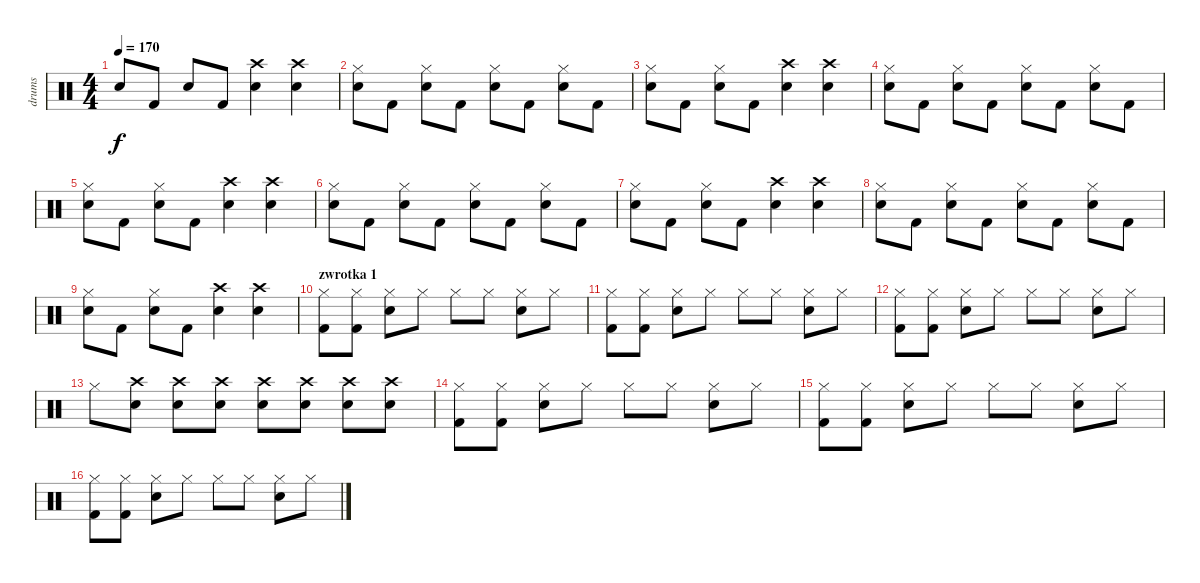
\track ("drums" "drums") {instrument percussion}
\staff {score}
\articulation defaults
\ts (4 4)
\tempo 170
\clef neutral
\ks c "Snare (hit) 2".8{dy f} "Kick (hit) 2".8 "Snare (hit) 2".8 "Kick (hit) 2".8
("Crash high (hit)" "Snare (hit) 2").4 ("Crash high (hit)" "Snare (hit) 2").4 |
("Hi-Hat (closed)" "Snare (hit) 2").8 "Kick (hit) 2".8 ("Hi-Hat (closed)" "Snare (hit) 2").8 "Kick (hit) 2".8 ("Hi-Hat (closed)" "Snare (hit) 2").8 "Kick (hit) 2".8 ("Hi-Hat (closed)" "Snare (hit) 2").8 "Kick (hit) 2".8 |
("Hi-Hat (closed)" "Snare (hit) 2").8 "Kick (hit) 2".8 ("Hi-Hat (closed)" "Snare (hit) 2").8 "Kick (hit) 2".8 ("Crash high (hit)" "Snare (hit) 2").4 ("Crash high (hit)" "Snare (hit) 2").4 |
("Hi-Hat (closed)" "Snare (hit) 2").8 "Kick (hit) 2".8 ("Hi-Hat (closed)" "Snare (hit) 2").8 "Kick (hit) 2".8 ("Hi-Hat (closed)" "Snare (hit) 2").8 "Kick (hit) 2".8 ("Hi-Hat (closed)" "Snare (hit) 2").8 "Kick (hit) 2".8 |
("Hi-Hat (closed)" "Snare (hit) 2").8 "Kick (hit) 2".8 ("Hi-Hat (closed)" "Snare (hit) 2").8 "Kick (hit) 2".8 ("Crash high (hit)" "Snare (hit) 2").4 ("Crash high (hit)" "Snare (hit) 2").4 |
("Hi-Hat (closed)" "Snare (hit) 2").8 "Kick (hit) 2".8 ("Hi-Hat (closed)" "Snare (hit) 2").8 "Kick (hit) 2".8 ("Hi-Hat (closed)" "Snare (hit) 2").8 "Kick (hit) 2".8 ("Hi-Hat (closed)" "Snare (hit) 2").8 "Kick (hit) 2".8 |
("Hi-Hat (closed)" "Snare (hit) 2").8 "Kick (hit) 2".8 ("Hi-Hat (closed)" "Snare (hit) 2").8 "Kick (hit) 2".8 ("Crash high (hit)" "Snare (hit) 2").4 ("Crash high (hit)" "Snare (hit) 2").4 |
("Hi-Hat (closed)" "Snare (hit) 2").8 "Kick (hit) 2".8 ("Hi-Hat (closed)" "Snare (hit) 2").8 "Kick (hit) 2".8 ("Hi-Hat (closed)" "Snare (hit) 2").8 "Kick (hit) 2".8 ("Hi-Hat (closed)" "Snare (hit) 2").8 "Kick (hit) 2".8 |
("Hi-Hat (closed)" "Snare (hit) 2").8 "Kick (hit) 2".8 ("Hi-Hat (closed)" "Snare (hit) 2").8 "Kick (hit) 2".8 ("Crash high (hit)" "Snare (hit) 2").4 ("Crash high (hit)" "Snare (hit) 2").4 |
\section ("" "zwrotka 1")
("Hi-Hat (closed)" "Kick (hit) 2").8 ("Hi-Hat (closed)" "Kick (hit) 2").8 ("Hi-Hat (closed)" "Snare (hit) 2").8 "Hi-Hat (closed)".8 "Hi-Hat (closed)".8 "Hi-Hat (closed)".8 ("Hi-Hat (closed)" "Snare (hit) 2").8 "Hi-Hat (closed)".8 |
("Hi-Hat (closed)" "Kick (hit) 2").8 ("Hi-Hat (closed)" "Kick (hit) 2").8 ("Hi-Hat (closed)" "Snare (hit) 2").8 "Hi-Hat (closed)".8 "Hi-Hat (closed)".8 "Hi-Hat (closed)".8 ("Hi-Hat (closed)" "Snare (hit) 2").8 "Hi-Hat (closed)".8 |
("Hi-Hat (closed)" "Kick (hit) 2").8 ("Hi-Hat (closed)" "Kick (hit) 2").8 ("Hi-Hat (closed)" "Snare (hit) 2").8 "Hi-Hat (closed)".8 "Hi-Hat (closed)".8 "Hi-Hat (closed)".8 ("Hi-Hat (closed)" "Snare (hit) 2").8 "Hi-Hat (closed)".8 |
"Hi-Hat (closed)".8 ("Crash high (hit)" "Snare (hit) 2").8 ("Crash high (hit)" "Snare (hit) 2").8 ("Crash high (hit)" "Snare (hit) 2").8 ("Crash high (hit)" "Snare (hit) 2").8 ("Crash high (hit)" "Snare (hit) 2").8 ("Crash high (hit)" "Snare (hit) 2").8 ("Crash high (hit)" "Snare (hit) 2").8 |
("Hi-Hat (closed)" "Kick (hit) 2").8 ("Hi-Hat (closed)" "Kick (hit) 2").8 ("Hi-Hat (closed)" "Snare (hit) 2").8 "Hi-Hat (closed)".8 "Hi-Hat (closed)".8 "Hi-Hat (closed)".8 ("Hi-Hat (closed)" "Snare (hit) 2").8 "Hi-Hat (closed)".8 |
("Hi-Hat (closed)" "Kick (hit) 2").8 ("Hi-Hat (closed)" "Kick (hit) 2").8 ("Hi-Hat (closed)" "Snare (hit) 2").8 "Hi-Hat (closed)".8 "Hi-Hat (closed)".8 "Hi-Hat (closed)".8 ("Hi-Hat (closed)" "Snare (hit) 2").8 "Hi-Hat (closed)".8 |
("Hi-Hat (closed)" "Kick (hit) 2").8 ("Hi-Hat (closed)" "Kick (hit) 2").8 ("Hi-Hat (closed)" "Snare (hit) 2").8 "Hi-Hat (closed)".8 "Hi-Hat (closed)".8 "Hi-Hat (closed)".8 ("Hi-Hat (closed)" "Snare (hit) 2").8 "Hi-Hat (closed)".8
